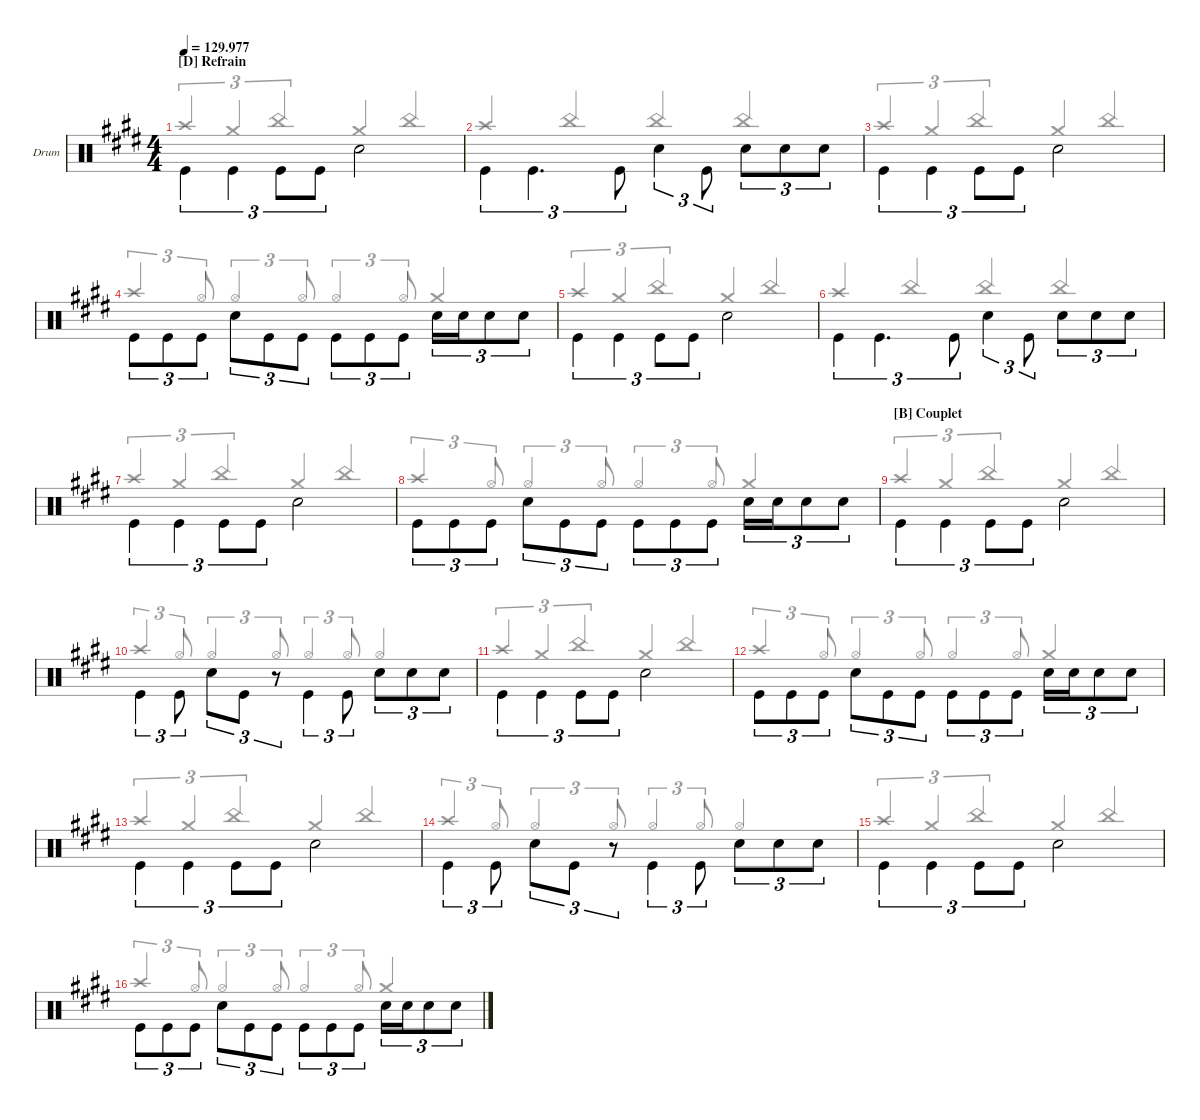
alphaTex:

\defaultSystemsLayout 4
\hideDynamics
\bracketExtendMode nobrackets
\firstSystemTrackNameOrientation horizontal
\track ("BATTERIE" "Drum") {defaultSystemsLayout 4 instrument percussion}
\staff {score}
\articulation defaults
\voice
\ts (4 4)
\section ("D" "Refrain")
\tempo
129.977
\accidentals auto
\clef neutral
\ottava regular
\simile none
\ks e "Kick (hit)"{acc forcenatural}.4{tu (3 2) dy mf beam Down} "Kick (hit)"{acc forcenatural}.4{tu (3 2) beam Down} "Kick (hit)"{acc forcenatural}.8{tu (3 2) beam Down} "Kick (hit)"{acc forcenatural}.8{tu (3 2) beam Down} "Snare (hit) 2"{acc forcenatural}.2{beam Down}
|
"Kick (hit)"{acc forcenatural}.4{tu (3 2) beam Down} "Kick (hit)"{acc forcenatural}.4{d tu (3 2) beam Down} "Kick (hit)"{acc forcenatural}.8{tu (3 2) beam Down} "Snare (hit) 2"{acc forcenatural}.4{tu (3 2) beam Down} "Kick (hit)"{acc forcenatural}.8{tu (3 2) beam Down} "Snare (hit) 2"{acc forcenatural}.8{tu (3 2) beam Down} "Snare (hit) 2"{acc forcenatural}.8{tu (3 2) beam Down} "Snare (hit) 2"{acc forcenatural}.8{tu (3 2) beam Down} |
"Kick (hit)"{acc forcenatural}.4{tu (3 2) beam Down} "Kick (hit)"{acc forcenatural}.4{tu (3 2) beam Down} "Kick (hit)"{acc forcenatural}.8{tu (3 2) beam Down} "Kick (hit)"{acc forcenatural}.8{tu (3 2) beam Down} "Snare (hit) 2"{acc forcenatural}.2{beam Down} |
"Kick (hit)"{acc forcenatural}.8{tu (3 2) beam Down} "Kick (hit)"{acc forcenatural}.8{tu (3 2) beam Down} "Kick (hit)"{acc forcenatural}.8{tu (3 2) beam Down} "Snare (hit) 2"{acc forcenatural}.8{tu (3 2) beam Down} "Kick (hit)"{acc forcenatural}.8{tu (3 2) beam Down} "Kick (hit)"{acc forcenatural}.8{tu (3 2) beam Down} "Kick (hit)"{acc forcenatural}.8{tu (3 2) beam Down} "Kick (hit)"{acc forcenatural}.8{tu (3 2) beam Down} "Kick (hit)"{acc forcenatural}.8{tu (3 2) beam Down} "Snare (hit) 2"{acc forcenatural}.16{tu (3 2) beam Down} "Snare (hit) 2"{acc forcenatural}.16{tu (3 2) beam Down} "Snare (hit) 2"{acc forcenatural}.8{tu (3 2) beam Down} "Snare (hit) 2"{acc forcenatural}.8{tu (3 2) beam Down} |
"Kick (hit)"{acc forcenatural}.4{tu (3 2) beam Down} "Kick (hit)"{acc forcenatural}.4{tu (3 2) beam Down} "Kick (hit)"{acc forcenatural}.8{tu (3 2) beam Down} "Kick (hit)"{acc forcenatural}.8{tu (3 2) beam Down} "Snare (hit) 2"{acc forcenatural}.2{beam Down} |
"Kick (hit)"{acc forcenatural}.4{tu (3 2) beam Down} "Kick (hit)"{acc forcenatural}.4{d tu (3 2) beam Down} "Kick (hit)"{acc forcenatural}.8{tu (3 2) beam Down} "Snare (hit) 2"{acc forcenatural}.4{tu (3 2) beam Down} "Kick (hit)"{acc forcenatural}.8{tu (3 2) beam Down} "Snare (hit) 2"{acc forcenatural}.8{tu (3 2) beam Down} "Snare (hit) 2"{acc forcenatural}.8{tu (3 2) beam Down} "Snare (hit) 2"{acc forcenatural}.8{tu (3 2) beam Down} |
"Kick (hit)"{acc forcenatural}.4{tu (3 2) beam Down} "Kick (hit)"{acc forcenatural}.4{tu (3 2) beam Down} "Kick (hit)"{acc forcenatural}.8{tu (3 2) beam Down} "Kick (hit)"{acc forcenatural}.8{tu (3 2) beam Down} "Snare (hit) 2"{acc forcenatural}.2{beam Down} |
"Kick (hit)"{acc forcenatural}.8{tu (3 2) beam Down} "Kick (hit)"{acc forcenatural}.8{tu (3 2) beam Down} "Kick (hit)"{acc forcenatural}.8{tu (3 2) beam Down} "Snare (hit) 2"{acc forcenatural}.8{tu (3 2) beam Down} "Kick (hit)"{acc forcenatural}.8{tu (3 2) beam Down} "Kick (hit)"{acc forcenatural}.8{tu (3 2) beam Down} "Kick (hit)"{acc forcenatural}.8{tu (3 2) beam Down} "Kick (hit)"{acc forcenatural}.8{tu (3 2) beam Down} "Kick (hit)"{acc forcenatural}.8{tu (3 2) beam Down} "Snare (hit) 2"{acc forcenatural}.16{tu (3 2) beam Down} "Snare (hit) 2"{acc forcenatural}.16{tu (3 2) beam Down} "Snare (hit) 2"{acc forcenatural}.8{tu (3 2) beam Down} "Snare (hit) 2"{acc forcenatural}.8{tu (3 2) beam Down} |
\section ("B" "Couplet")
"Kick (hit)"{acc forcenatural}.4{tu (3 2) beam Down} "Kick (hit)"{acc forcenatural}.4{tu (3 2) beam Down} "Kick (hit)"{acc forcenatural}.8{tu (3 2) beam Down} "Kick (hit)"{acc forcenatural}.8{tu (3 2) beam Down} "Snare (hit) 2"{acc forcenatural}.2{beam Down} |
"Kick (hit)"{acc forcenatural}.4{tu (3 2) beam Down} "Kick (hit)"{acc forcenatural}.8{tu (3 2) beam Down} "Snare (hit) 2"{acc forcenatural}.8{tu (3 2) beam Down} "Kick (hit)"{acc forcenatural}.8{tu (3 2) beam Down} r.8{tu (3 2) beam Down} "Kick (hit)"{acc forcenatural}.4{tu (3 2) beam Down} "Kick (hit)"{acc forcenatural}.8{tu (3 2) beam Down} "Snare (hit) 2"{acc forcenatural}.8{tu (3 2) beam Down} "Snare (hit) 2"{acc forcenatural}.8{tu (3 2) beam Down} "Snare (hit) 2"{acc forcenatural}.8{tu (3 2) beam Down} |
"Kick (hit)"{acc forcenatural}.4{tu (3 2) beam Down} "Kick (hit)"{acc forcenatural}.4{tu (3 2) beam Down} "Kick (hit)"{acc forcenatural}.8{tu (3 2) beam Down} "Kick (hit)"{acc forcenatural}.8{tu (3 2) beam Down} "Snare (hit) 2"{acc forcenatural}.2{beam Down} |
"Kick (hit)"{acc forcenatural}.8{tu (3 2) beam Down} "Kick (hit)"{acc forcenatural}.8{tu (3 2) beam Down} "Kick (hit)"{acc forcenatural}.8{tu (3 2) beam Down} "Snare (hit) 2"{acc forcenatural}.8{tu (3 2) beam Down} "Kick (hit)"{acc forcenatural}.8{tu (3 2) beam Down} "Kick (hit)"{acc forcenatural}.8{tu (3 2) beam Down} "Kick (hit)"{acc forcenatural}.8{tu (3 2) beam Down} "Kick (hit)"{acc forcenatural}.8{tu (3 2) beam Down} "Kick (hit)"{acc forcenatural}.8{tu (3 2) beam Down} "Snare (hit) 2"{acc forcenatural}.16{tu (3 2) beam Down} "Snare (hit) 2"{acc forcenatural}.16{tu (3 2) beam Down} "Snare (hit) 2"{acc forcenatural}.8{tu (3 2) beam Down} "Snare (hit) 2"{acc forcenatural}.8{tu (3 2) beam Down} |
"Kick (hit)"{acc forcenatural}.4{tu (3 2) beam Down} "Kick (hit)"{acc forcenatural}.4{tu (3 2) beam Down} "Kick (hit)"{acc forcenatural}.8{tu (3 2) beam Down} "Kick (hit)"{acc forcenatural}.8{tu (3 2) beam Down} "Snare (hit) 2"{acc forcenatural}.2{beam Down} |
"Kick (hit)"{acc forcenatural}.4{tu (3 2) beam Down} "Kick (hit)"{acc forcenatural}.8{tu (3 2) beam Down} "Snare (hit) 2"{acc forcenatural}.8{tu (3 2) beam Down} "Kick (hit)"{acc forcenatural}.8{tu (3 2) beam Down} r.8{tu (3 2) beam Down} "Kick (hit)"{acc forcenatural}.4{tu (3 2) beam Down} "Kick (hit)"{acc forcenatural}.8{tu (3 2) beam Down} "Snare (hit) 2"{acc forcenatural}.8{tu (3 2) beam Down} "Snare (hit) 2"{acc forcenatural}.8{tu (3 2) beam Down} "Snare (hit) 2"{acc forcenatural}.8{tu (3 2) beam Down} |
"Kick (hit)"{acc forcenatural}.4{tu (3 2) beam Down} "Kick (hit)"{acc forcenatural}.4{tu (3 2) beam Down} "Kick (hit)"{acc forcenatural}.8{tu (3 2) beam Down} "Kick (hit)"{acc forcenatural}.8{tu (3 2) beam Down} "Snare (hit) 2"{acc forcenatural}.2{beam Down} |
"Kick (hit)"{acc forcenatural}.8{tu (3 2) beam Down} "Kick (hit)"{acc forcenatural}.8{tu (3 2) beam Down} "Kick (hit)"{acc forcenatural}.8{tu (3 2) beam Down} "Snare (hit) 2"{acc forcenatural}.8{tu (3 2) beam Down} "Kick (hit)"{acc forcenatural}.8{tu (3 2) beam Down} "Kick (hit)"{acc forcenatural}.8{tu (3 2) beam Down} "Kick (hit)"{acc forcenatural}.8{tu (3 2) beam Down} "Kick (hit)"{acc forcenatural}.8{tu (3 2) beam Down} "Kick (hit)"{acc forcenatural}.8{tu (3 2) beam Down} "Snare (hit) 2"{acc forcenatural}.16{tu (3 2) beam Down} "Snare (hit) 2"{acc forcenatural}.16{tu (3 2) beam Down} "Snare (hit) 2"{acc forcenatural}.8{tu (3 2) beam Down} "Snare (hit) 2"{acc forcenatural}.8{tu (3 2) beam Down}
\voice
\clef neutral
\ottava regular
\simile none
\ks e "Crash high (hit)"{acc forcenatural}.4{tu (3 2) dy mf beam Up} "Crash medium (hit)"{acc forcenatural}.4{tu (3 2) beam Up} "China (hit)"{acc forcenatural}.4{tu (3 2) beam Up} "Crash medium (hit)"{acc forcenatural}.4{beam Up} "China (hit)"{acc forcenatural}.4{beam Up}
|
"Crash high (hit)"{acc forcenatural}.4{beam Up} "China (hit)"{acc forcenatural}.4{beam Up} "China (hit)"{acc forcenatural}.4{beam Up} "China (hit)"{acc forcenatural}.4{beam Up} |
"Crash high (hit)"{acc forcenatural}.4{tu (3 2) beam Up} "Crash medium (hit)"{acc forcenatural}.4{tu (3 2) beam Up} "China (hit)"{acc forcenatural}.4{tu (3 2) beam Up} "Crash medium (hit)"{acc forcenatural}.4{beam Up} "China (hit)"{acc forcenatural}.4{beam Up} |
"Crash high (hit)"{acc forcenatural}.4{tu (3 2) beam Up} "Hi-Hat (open)"{acc forcenatural}.8{tu (3 2) beam Up} "Hi-Hat (open)"{acc forcenatural}.4{tu (3 2) beam Up} "Hi-Hat (open)"{acc forcenatural}.8{tu (3 2) beam Up} "Hi-Hat (open)"{acc forcenatural}.4{tu (3 2) beam Up} "Hi-Hat (open)"{acc forcenatural}.8{tu (3 2) beam Up} "Crash medium (hit)"{acc forcenatural}.4{beam Up} |
"Crash high (hit)"{acc forcenatural}.4{tu (3 2) beam Up} "Crash medium (hit)"{acc forcenatural}.4{tu (3 2) beam Up} "China (hit)"{acc forcenatural}.4{tu (3 2) beam Up} "Crash medium (hit)"{acc forcenatural}.4{beam Up} "China (hit)"{acc forcenatural}.4{beam Up} |
"Crash high (hit)"{acc forcenatural}.4{beam Up} "China (hit)"{acc forcenatural}.4{beam Up} "China (hit)"{acc forcenatural}.4{beam Up} "China (hit)"{acc forcenatural}.4{beam Up} |
"Crash high (hit)"{acc forcenatural}.4{tu (3 2) beam Up} "Crash medium (hit)"{acc forcenatural}.4{tu (3 2) beam Up} "China (hit)"{acc forcenatural}.4{tu (3 2) beam Up} "Crash medium (hit)"{acc forcenatural}.4{beam Up} "China (hit)"{acc forcenatural}.4{beam Up} |
"Crash high (hit)"{acc forcenatural}.4{tu (3 2) beam Up} "Hi-Hat (open)"{acc forcenatural}.8{tu (3 2) beam Up} "Hi-Hat (open)"{acc forcenatural}.4{tu (3 2) beam Up} "Hi-Hat (open)"{acc forcenatural}.8{tu (3 2) beam Up} "Hi-Hat (open)"{acc forcenatural}.4{tu (3 2) beam Up} "Hi-Hat (open)"{acc forcenatural}.8{tu (3 2) beam Up} "Crash medium (hit)"{acc forcenatural}.4{beam Up} |
"Crash high (hit)"{acc forcenatural}.4{tu (3 2) beam Up} "Crash medium (hit)"{acc forcenatural}.4{tu (3 2) beam Up} "China (hit)"{acc forcenatural}.4{tu (3 2) beam Up} "Crash medium (hit)"{acc forcenatural}.4{beam Up} "China (hit)"{acc forcenatural}.4{beam Up} |
"Crash high (hit)"{acc forcenatural}.4{tu (3 2) beam Up} "Hi-Hat (open)"{acc forcenatural}.8{tu (3 2) beam Up} "Hi-Hat (open)"{acc forcenatural}.4{tu (3 2) beam Up} "Hi-Hat (open)"{acc forcenatural}.8{tu (3 2) beam Up} "Hi-Hat (open)"{acc forcenatural}.4{tu (3 2) beam Up} "Hi-Hat (open)"{acc forcenatural}.8{tu (3 2) beam Up} "Hi-Hat (open)"{acc forcenatural}.4{beam Up} |
"Crash high (hit)"{acc forcenatural}.4{tu (3 2) beam Up} "Crash medium (hit)"{acc forcenatural}.4{tu (3 2) beam Up} "China (hit)"{acc forcenatural}.4{tu (3 2) beam Up} "Crash medium (hit)"{acc forcenatural}.4{beam Up} "China (hit)"{acc forcenatural}.4{beam Up} |
"Crash high (hit)"{acc forcenatural}.4{tu (3 2) beam Up} "Hi-Hat (open)"{acc forcenatural}.8{tu (3 2) beam Up} "Hi-Hat (open)"{acc forcenatural}.4{tu (3 2) beam Up} "Hi-Hat (open)"{acc forcenatural}.8{tu (3 2) beam Up} "Hi-Hat (open)"{acc forcenatural}.4{tu (3 2) beam Up} "Hi-Hat (open)"{acc forcenatural}.8{tu (3 2) beam Up} "Crash medium (hit)"{acc forcenatural}.4{beam Up} |
"Crash high (hit)"{acc forcenatural}.4{tu (3 2) beam Up} "Crash medium (hit)"{acc forcenatural}.4{tu (3 2) beam Up} "China (hit)"{acc forcenatural}.4{tu (3 2) beam Up} "Crash medium (hit)"{acc forcenatural}.4{beam Up} "China (hit)"{acc forcenatural}.4{beam Up} |
"Crash high (hit)"{acc forcenatural}.4{tu (3 2) beam Up} "Hi-Hat (open)"{acc forcenatural}.8{tu (3 2) beam Up} "Hi-Hat (open)"{acc forcenatural}.4{tu (3 2) beam Up} "Hi-Hat (open)"{acc forcenatural}.8{tu (3 2) beam Up} "Hi-Hat (open)"{acc forcenatural}.4{tu (3 2) beam Up} "Hi-Hat (open)"{acc forcenatural}.8{tu (3 2) beam Up} "Hi-Hat (open)"{acc forcenatural}.4{beam Up} |
"Crash high (hit)"{acc forcenatural}.4{tu (3 2) beam Up} "Crash medium (hit)"{acc forcenatural}.4{tu (3 2) beam Up} "China (hit)"{acc forcenatural}.4{tu (3 2) beam Up} "Crash medium (hit)"{acc forcenatural}.4{beam Up} "China (hit)"{acc forcenatural}.4{beam Up} |
"Crash high (hit)"{acc forcenatural}.4{tu (3 2) beam Up} "Hi-Hat (open)"{acc forcenatural}.8{tu (3 2) beam Up} "Hi-Hat (open)"{acc forcenatural}.4{tu (3 2) beam Up} "Hi-Hat (open)"{acc forcenatural}.8{tu (3 2) beam Up} "Hi-Hat (open)"{acc forcenatural}.4{tu (3 2) beam Up} "Hi-Hat (open)"{acc forcenatural}.8{tu (3 2) beam Up} "Crash medium (hit)"{acc forcenatural}.4{beam Up}
